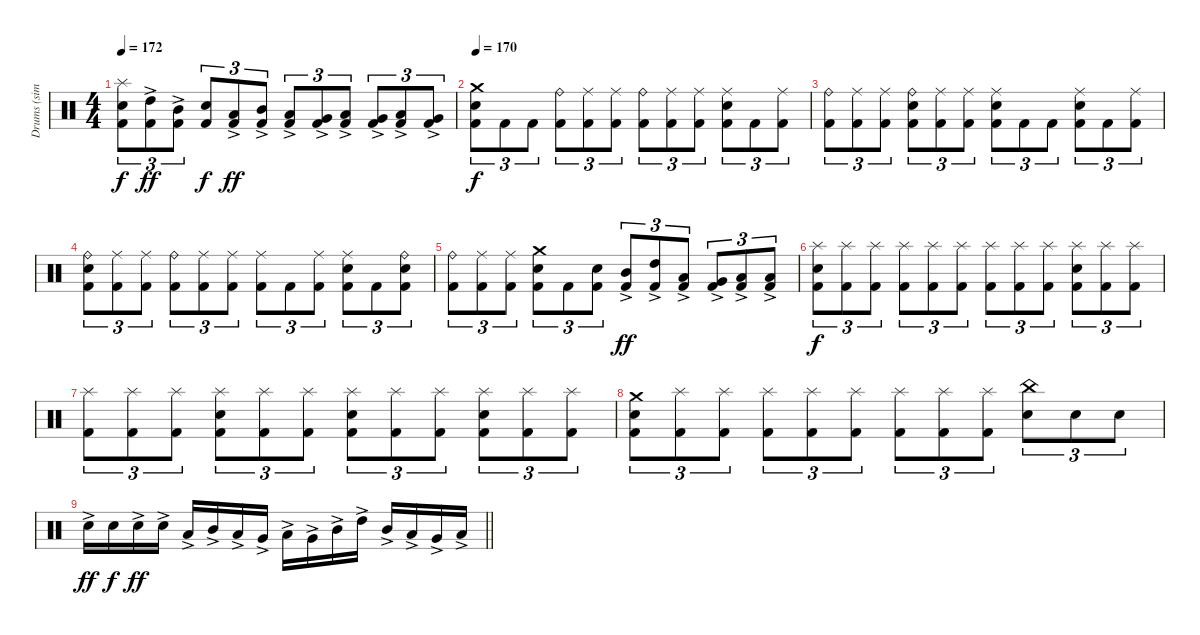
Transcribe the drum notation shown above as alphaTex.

\track ("Drums (simplified)" "Drums (sim") {instrument percussion}
\staff {score}
\articulation defaults
\ts (4 4)
\tempo 172
\clef neutral
\ks c
("Splash (hit)" "Electric Snare (hit)" "Kick (hit) 2").8{tu (3 2) dy f} ("High Tom (hit)"{ac} "Kick (hit) 2").8{tu (3 2) dy ff} ("Mid Tom (hit)"{ac} "Kick (hit) 2").8{tu (3 2)} ("Electric Snare (hit)" "Kick (hit) 2").8{tu (3 2) dy f} ("Low Tom (hit)"{ac} "Kick (hit) 2").8{tu (3 2) dy ff} ("Mid Tom (hit)"{ac} "Kick (hit) 2").8{tu (3 2)} ("Low Tom (hit)"{ac} "Kick (hit) 2").8{tu (3 2)} ("Very Low Tom (hit)"{ac} "Kick (hit) 2").8{tu (3 2)} ("Low Tom (hit)"{ac} "Kick (hit) 2").8{tu (3 2)} ("Very Low Tom (hit)"{ac} "Kick (hit) 2").8{tu (3 2)} ("Low Floor Tom (hit)"{ac} "Kick (hit) 2").8{tu (3 2)} ("Very Low Tom (hit)"{ac} "Kick (hit) 2").8{tu (3 2)} |
\tempo 170
("Crash medium (hit)" "Electric Snare (hit)" "Kick (hit) 2").8{tu (3 2) dy f} "Kick (hit) 2".8{tu (3 2)} "Kick (hit) 2".8{tu (3 2)} ("Ride (bell)" "Kick (hit) 2").8{tu (3 2)} ("Ride (middle)" "Kick (hit) 2").8{tu (3 2)} ("Ride (middle)" "Kick (hit) 2").8{tu (3 2)} ("Ride (bell)" "Kick (hit) 2").8{tu (3 2)} ("Ride (middle)" "Kick (hit) 2").8{tu (3 2)} ("Ride (middle)" "Kick (hit) 2").8{tu (3 2)} ("Ride (middle)" "Electric Snare (hit)" "Kick (hit) 2").8{tu (3 2)} "Kick (hit) 2".8{tu (3 2)} ("Ride (middle)" "Kick (hit) 2").8{tu (3 2)} |
("Ride (bell)" "Kick (hit) 2").8{tu (3 2)} ("Ride (middle)" "Kick (hit) 2").8{tu (3 2)} ("Ride (middle)" "Kick (hit) 2").8{tu (3 2)} ("Ride (bell)" "Electric Snare (hit)" "Kick (hit) 2").8{tu (3 2)} ("Ride (middle)" "Kick (hit) 2").8{tu (3 2)} ("Ride (middle)" "Kick (hit) 2").8{tu (3 2)} ("Ride (middle)" "Electric Snare (hit)" "Kick (hit) 2").8{tu (3 2)} "Kick (hit) 2".8{tu (3 2)} "Kick (hit) 2".8{tu (3 2)} ("Ride (middle)" "Electric Snare (hit)" "Kick (hit) 2").8{tu (3 2)} "Kick (hit) 2".8{tu (3 2)} ("Ride (middle)" "Kick (hit) 2").8{tu (3 2)} |
("Ride (bell)" "Electric Snare (hit)" "Kick (hit) 2").8{tu (3 2)} ("Ride (middle)" "Kick (hit) 2").8{tu (3 2)} ("Ride (middle)" "Kick (hit) 2").8{tu (3 2)} ("Ride (bell)" "Kick (hit) 2").8{tu (3 2)} ("Ride (middle)" "Kick (hit) 2").8{tu (3 2)} ("Ride (middle)" "Kick (hit) 2").8{tu (3 2)} ("Ride (middle)" "Kick (hit) 2").8{tu (3 2)} "Kick (hit) 2".8{tu (3 2)} ("Ride (middle)" "Kick (hit) 2").8{tu (3 2)} ("Ride (middle)" "Electric Snare (hit)" "Kick (hit) 2").8{tu (3 2)} "Kick (hit) 2".8{tu (3 2)} ("Ride (bell)" "Electric Snare (hit)" "Kick (hit) 2").8{tu (3 2)} |
("Ride (bell)" "Kick (hit) 2").8{tu (3 2)} ("Ride (middle)" "Kick (hit) 2").8{tu (3 2)} ("Ride (middle)" "Kick (hit) 2").8{tu (3 2)} ("Crash medium (hit)" "Electric Snare (hit)" "Kick (hit) 2").8{tu (3 2)} "Kick (hit) 2".8{tu (3 2)} ("Electric Snare (hit)" "Kick (hit) 2").8{tu (3 2)} ("Mid Tom (hit)"{ac} "Kick (hit) 2").8{tu (3 2) dy ff} ("High Tom (hit)"{ac} "Kick (hit) 2").8{tu (3 2)} ("Low Tom (hit)"{ac} "Kick (hit) 2").8{tu (3 2)} ("Very Low Tom (hit)"{ac} "Kick (hit) 2").8{tu (3 2)} ("Low Tom (hit)"{ac} "Kick (hit) 2").8{tu (3 2)} ("Low Floor Tom (hit)"{ac} "Kick (hit) 2").8{tu (3 2)} |
("Splash (hit)" "Electric Snare (hit)" "Kick (hit) 2").8{tu (3 2) dy f} ("Splash (hit)" "Kick (hit) 2").8{tu (3 2)} ("Splash (hit)" "Kick (hit) 2").8{tu (3 2)} ("Splash (hit)" "Kick (hit) 2").8{tu (3 2)} ("Splash (hit)" "Kick (hit) 2").8{tu (3 2)} ("Splash (hit)" "Kick (hit) 2").8{tu (3 2)} ("Splash (hit)" "Kick (hit) 2").8{tu (3 2)} ("Splash (hit)" "Kick (hit) 2").8{tu (3 2)} ("Splash (hit)" "Kick (hit) 2").8{tu (3 2)} ("Splash (hit)" "Electric Snare (hit)" "Kick (hit) 2").8{tu (3 2)} ("Splash (hit)" "Kick (hit) 2").8{tu (3 2)} ("Splash (hit)" "Kick (hit) 2").8{tu (3 2)} |
("Splash (hit)" "Kick (hit) 2").8{tu (3 2)} ("Splash (hit)" "Kick (hit) 2").8{tu (3 2)} ("Splash (hit)" "Kick (hit) 2").8{tu (3 2)} ("Splash (hit)" "Electric Snare (hit)" "Kick (hit) 2").8{tu (3 2)} ("Splash (hit)" "Kick (hit) 2").8{tu (3 2)} ("Splash (hit)" "Kick (hit) 2").8{tu (3 2)} ("Splash (hit)" "Electric Snare (hit)" "Kick (hit) 2").8{tu (3 2)} ("Splash (hit)" "Kick (hit) 2").8{tu (3 2)} ("Splash (hit)" "Kick (hit) 2").8{tu (3 2)} ("Splash (hit)" "Electric Snare (hit)" "Kick (hit) 2").8{tu (3 2)} ("Splash (hit)" "Kick (hit) 2").8{tu (3 2)} ("Splash (hit)" "Kick (hit) 2").8{tu (3 2)} |
("Crash medium (hit)" "Electric Snare (hit)" "Kick (hit) 2").8{tu (3 2)} ("Splash (hit)" "Kick (hit) 2").8{tu (3 2)} ("Splash (hit)" "Kick (hit) 2").8{tu (3 2)} ("Splash (hit)" "Kick (hit) 2").8{tu (3 2)} ("Splash (hit)" "Kick (hit) 2").8{tu (3 2)} ("Splash (hit)" "Kick (hit) 2").8{tu (3 2)} ("Splash (hit)" "Kick (hit) 2").8{tu (3 2)} ("Splash (hit)" "Kick (hit) 2").8{tu (3 2)} ("Splash (hit)" "Kick (hit) 2").8{tu (3 2)} ("China (hit)" "Electric Snare (hit)").8{tu (3 2)} "Electric Snare (hit)".8{tu (3 2)} "Electric Snare (hit)".8{tu (3 2)} |
\barLineRight lightlight "Electric Snare (hit)"{ac}.16{dy ff} "Electric Snare (hit)".16{dy f} "Electric Snare (hit)"{ac}.16{dy ff} "Electric Snare (hit)"{ac}.16 "Low Tom (hit)"{ac}.16 "Mid Tom (hit)"{ac}.16 "Low Tom (hit)"{ac}.16 "Very Low Tom (hit)"{ac}.16 "Low Tom (hit)"{ac}.16 "Very Low Tom (hit)"{ac}.16 "Mid Tom (hit)"{ac}.16 "High Tom (hit)"{ac}.16 "Mid Tom (hit)"{ac}.16 "Low Tom (hit)"{ac}.16 "Very Low Tom (hit)"{ac}.16 "Low Floor Tom (hit)"{ac}.16
